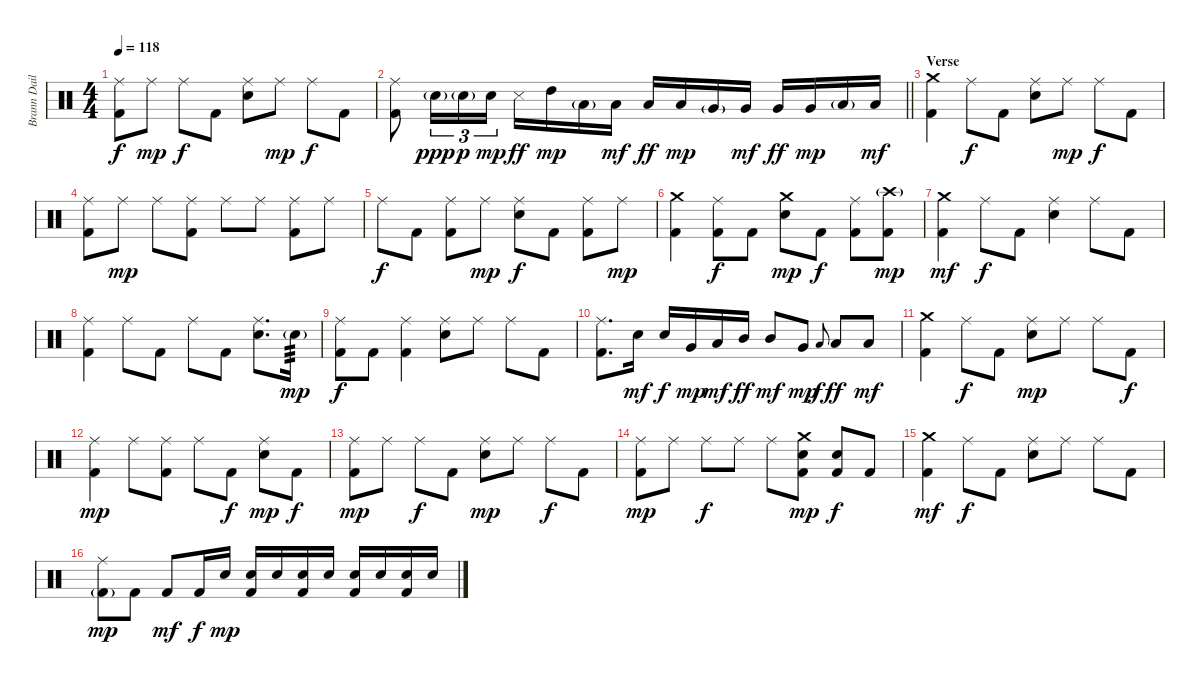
\track ("Brann Dailor - Drums" "Brann Dail") {instrument percussion}
\staff {score}
\articulation defaults
\ts (4 4)
\tempo 118
\clef neutral
\ks c
("Ride (middle)" "Kick (hit) 2").8{dy f} "Ride (middle)".8{dy mp} "Ride (middle)".8{dy f} "Kick (hit) 2".8 ("Ride (middle)" "Electric Snare (hit)").8 "Ride (middle)".8{dy mp} "Ride (middle)".8{dy f} "Kick (hit) 2".8 |
\barLineRight lightlight
("Ride (middle)" "Kick (hit) 2").8 "Electric Snare (hit)"{g}.16{tu (3 2) dy ppp} "Electric Snare (hit)"{g}.16{tu (3 2) dy p} "Electric Snare (hit)".16{tu (3 2) dy mp} "Snare (side stick) 3".16{dy ff} "High Tom (hit)".16{dy mp} "Low Tom (hit)"{g}.16 "Low Tom (hit)".16{dy mf} "Low Tom (hit)".16{dy ff} "Low Tom (hit)".16{dy mp} "Very Low Tom (hit)"{g}.16 "Very Low Tom (hit)".16{dy mf} "Very Low Tom (hit)".16{dy ff} "Very Low Tom (hit)".16{dy mp} "Low Floor Tom (hit)"{g}.16 "Low Floor Tom (hit)".16{dy mf} |
\section ("" "Verse")
("Crash medium (hit)" "Kick (hit) 2").4 "Ride (middle)".8{dy f} "Kick (hit) 2".8 ("Ride (middle)" "Electric Snare (hit)").8 "Ride (middle)".8{dy mp} "Ride (middle)".8{dy f} "Kick (hit) 2".8 |
("Ride (middle)" "Kick (hit) 2").8 "Ride (middle)".8{dy mp} "Ride (middle)".8 ("Ride (middle)" "Kick (hit) 2").8 "Ride (middle)".8 "Ride (middle)".8 ("Ride (middle)" "Kick (hit) 2").8 "Ride (middle)".8 |
"Ride (middle)".8{dy f} "Kick (hit) 2".8 ("Ride (middle)" "Kick (hit) 2").8 "Ride (middle)".8{dy mp} ("Ride (middle)" "Electric Snare (hit)").8{dy f} "Kick (hit) 2".8 ("Ride (middle)" "Kick (hit) 2").8 "Ride (middle)".8{dy mp} |
("Crash medium (hit)" "Kick (hit) 2").4 ("Ride (middle)" "Kick (hit) 2").8{dy f} "Kick (hit) 2".8 ("Crash medium (hit)" "Electric Snare (hit)").8{dy mp} "Kick (hit) 2".8{dy f} ("Ride (middle)" "Kick (hit) 2").8 ("Crash high (hit)"{g} "Kick (hit) 2").8{dy mp} |
("Crash medium (hit)" "Kick (hit) 2").4{dy mf} "Ride (middle)".8{dy f} "Kick (hit) 2".8 ("Ride (middle)" "Electric Snare (hit)").4 "Ride (middle)".8 "Kick (hit) 2".8 |
("Ride (middle)" "Kick (hit) 2").4 "Ride (middle)".8 "Kick (hit) 2".8 "Ride (middle)".8 "Kick (hit) 2".8 ("Ride (middle)" "Electric Snare (hit)").8{d} "Electric Snare (hit)"{g}.16{tp 3 dy mp} |
("Ride (middle)" "Kick (hit) 2").8{dy f} "Kick (hit) 2".8 ("Ride (middle)" "Kick (hit) 2").4 ("Ride (middle)" "Electric Snare (hit)").8 "Ride (middle)".8 "Ride (middle)".8 "Kick (hit) 2".8 |
("Ride (middle)" "Kick (hit) 2").8{d} "Electric Snare (hit)".16{dy mf} "Electric Snare (hit)".16{dy f} "Very Low Tom (hit)".16{dy mp} "Low Tom (hit)".16{dy mf} "Mid Tom (hit)".16{dy ff} "Mid Tom (hit)".8{dy mf} "Very Low Tom (hit)".8{dy mp} "Low Floor Tom (hit)".8{gr onbeat dy f} "Low Floor Tom (hit)".8{dy ff} "Low Floor Tom (hit)".8{dy mf} |
("Crash medium (hit)" "Kick (hit) 2").4 "Ride (middle)".8{dy f} "Kick (hit) 2".8 ("Ride (middle)" "Electric Snare (hit)").8{dy mp} "Ride (middle)".8 "Ride (middle)".8 "Kick (hit) 2".8{dy f} |
("Ride (middle)" "Kick (hit) 2").4{dy mp} "Ride (middle)".8 ("Ride (middle)" "Kick (hit) 2").8 "Ride (middle)".8 "Kick (hit) 2".8{dy f} ("Ride (middle)" "Electric Snare (hit)").8{dy mp} "Kick (hit) 2".8{dy f} |
("Ride (middle)" "Kick (hit) 2").8{dy mp} "Ride (middle)".8 "Ride (middle)".8{dy f} "Kick (hit) 2".8 ("Ride (middle)" "Electric Snare (hit)").8{dy mp} "Ride (middle)".8 "Ride (middle)".8{dy f} "Kick (hit) 2".8 |
("Ride (middle)" "Kick (hit) 2").8{dy mp} "Ride (middle)".8 "Ride (middle)".8{dy f} "Ride (middle)".8 "Ride (middle)".8 ("Crash medium (hit)" "Electric Snare (hit)" "Kick (hit) 2").8{dy mp} ("Electric Snare (hit)" "Kick (hit) 2").8{dy f} "Kick (hit) 2".8 |
("Crash medium (hit)" "Kick (hit) 2").4{dy mf} "Ride (middle)".8{dy f} "Kick (hit) 2".8 ("Ride (middle)" "Electric Snare (hit)").8 "Ride (middle)".8 "Ride (middle)".8 "Kick (hit) 2".8 |
("Ride (middle)" "Kick (hit) 2"{g}).8{dy mp} "Kick (hit) 2".8 "Kick (hit) 2".8{dy mf} "Kick (hit) 2".16{dy f} "Electric Snare (hit)".16{dy mp} ("Electric Snare (hit)" "Kick (hit) 2").16 "Electric Snare (hit)".16 ("Electric Snare (hit)" "Kick (hit) 2").16 "Electric Snare (hit)".16 ("Electric Snare (hit)" "Kick (hit) 2").16 "Electric Snare (hit)".16 ("Electric Snare (hit)" "Kick (hit) 2").16 "Electric Snare (hit)".16
